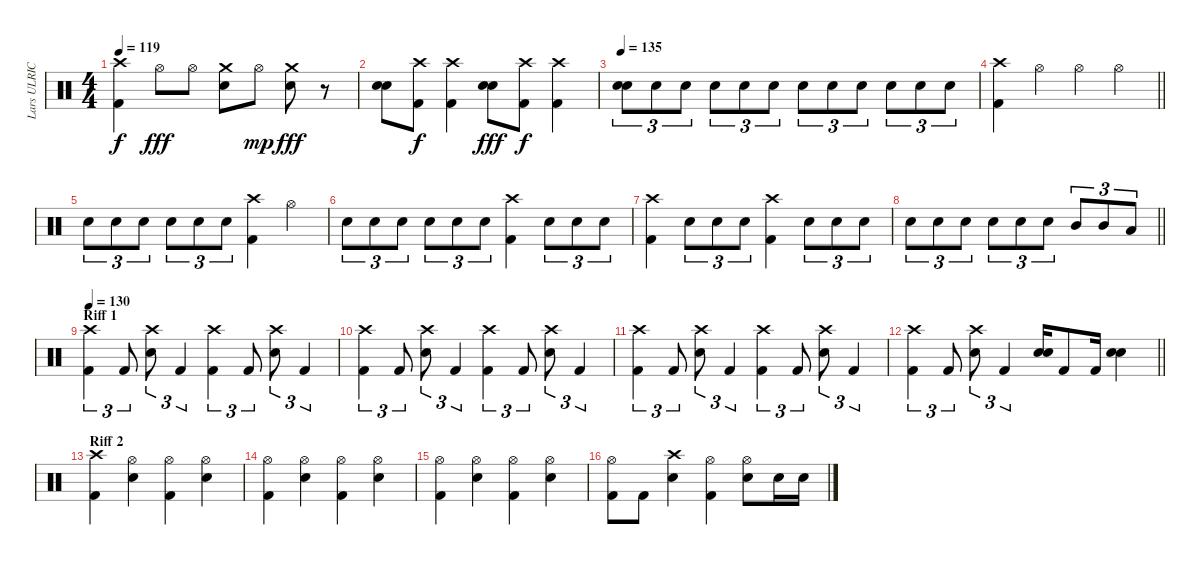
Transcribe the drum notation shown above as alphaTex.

\track ("Lars ULRICH" "Lars ULRIC") {instrument percussion}
\staff {score}
\articulation defaults
\ts (4 4)
\tempo 119
\clef neutral
\ks c
("Crash high (hit)" "Kick (hit) 2").4{dy f} "Hi-Hat (open)".8{dy fff} "Hi-Hat (open)".8 ("Crash medium (hit)" "Snare (hit) 2").8 "Hi-Hat (open)".8{dy mp} ("Crash medium (hit)" "Snare (hit) 2").8{dy fff} r.8 |
("Snare (hit) 2" "Snare (hit) 2").8 ("Crash high (hit)" "Kick (hit) 2").8{dy f} ("Crash high (hit)" "Kick (hit) 2").4 ("Snare (hit) 2" "Snare (hit) 2").8{dy fff} ("Crash high (hit)" "Kick (hit) 2").8{dy f} ("Crash high (hit)" "Kick (hit) 2").4 |
\tempo 135
("Snare (hit) 2" "Snare (hit) 2").8{tu (3 2)} "Snare (hit) 2".8{tu (3 2)} "Snare (hit) 2".8{tu (3 2)} "Snare (hit) 2".8{tu (3 2)} "Snare (hit) 2".8{tu (3 2)} "Snare (hit) 2".8{tu (3 2)} "Snare (hit) 2".8{tu (3 2)} "Snare (hit) 2".8{tu (3 2)} "Snare (hit) 2".8{tu (3 2)} "Snare (hit) 2".8{tu (3 2)} "Snare (hit) 2".8{tu (3 2)} "Snare (hit) 2".8{tu (3 2)} |
\barLineRight lightlight
("Crash high (hit)" "Kick (hit) 2").4 "Hi-Hat (open)".4 "Hi-Hat (open)".4 "Hi-Hat (open)".4 |
\section ("" "")
"Snare (hit) 2".8{tu (3 2)} "Snare (hit) 2".8{tu (3 2)} "Snare (hit) 2".8{tu (3 2)} "Snare (hit) 2".8{tu (3 2)} "Snare (hit) 2".8{tu (3 2)} "Snare (hit) 2".8{tu (3 2)} ("Crash high (hit)" "Kick (hit) 2").4 "Hi-Hat (open)".4 |
"Snare (hit) 2".8{tu (3 2)} "Snare (hit) 2".8{tu (3 2)} "Snare (hit) 2".8{tu (3 2)} "Snare (hit) 2".8{tu (3 2)} "Snare (hit) 2".8{tu (3 2)} "Snare (hit) 2".8{tu (3 2)} ("Crash high (hit)" "Kick (hit) 2").4 "Snare (hit) 2".8{tu (3 2)} "Snare (hit) 2".8{tu (3 2)} "Snare (hit) 2".8{tu (3 2)} |
("Crash high (hit)" "Kick (hit) 2").4 "Snare (hit) 2".8{tu (3 2)} "Snare (hit) 2".8{tu (3 2)} "Snare (hit) 2".8{tu (3 2)} ("Crash high (hit)" "Kick (hit) 2").4 "Snare (hit) 2".8{tu (3 2)} "Snare (hit) 2".8{tu (3 2)} "Snare (hit) 2".8{tu (3 2)} |
\barLineRight lightlight "Snare (hit) 2".8{tu (3 2)} "Snare (hit) 2".8{tu (3 2)} "Snare (hit) 2".8{tu (3 2)} "Snare (hit) 2".8{tu (3 2)} "Snare (hit) 2".8{tu (3 2)} "Snare (hit) 2".8{tu (3 2)} "Mid Tom (hit)".8{tu (3 2)} "Mid Tom (hit)".8{tu (3 2)} "Low Tom (hit)".8{tu (3 2)}
|
\section ("" "Riff 1")
\tempo 130
("Crash high (hit)" "Kick (hit) 2").4{tu (3 2)} "Kick (hit) 2".8{tu (3 2)} ("Crash high (hit)" "Snare (hit) 2").8{tu (3 2)} "Kick (hit) 2".4{tu (3 2)} ("Crash high (hit)" "Kick (hit) 2").4{tu (3 2)} "Kick (hit) 2".8{tu (3 2)} ("Crash high (hit)" "Snare (hit) 2").8{tu (3 2)} "Kick (hit) 2".4{tu (3 2)} |
("Crash high (hit)" "Kick (hit) 2").4{tu (3 2)} "Kick (hit) 2".8{tu (3 2)} ("Crash high (hit)" "Snare (hit) 2").8{tu (3 2)} "Kick (hit) 2".4{tu (3 2)} ("Crash high (hit)" "Kick (hit) 2").4{tu (3 2)} "Kick (hit) 2".8{tu (3 2)} ("Crash high (hit)" "Snare (hit) 2").8{tu (3 2)} "Kick (hit) 2".4{tu (3 2)} |
("Crash high (hit)" "Kick (hit) 2").4{tu (3 2)} "Kick (hit) 2".8{tu (3 2)} ("Crash high (hit)" "Snare (hit) 2").8{tu (3 2)} "Kick (hit) 2".4{tu (3 2)} ("Crash high (hit)" "Kick (hit) 2").4{tu (3 2)} "Kick (hit) 2".8{tu (3 2)} ("Crash high (hit)" "Snare (hit) 2").8{tu (3 2)} "Kick (hit) 2".4{tu (3 2)} |
\barLineRight lightlight
("Crash high (hit)" "Kick (hit) 2").4{tu (3 2)} "Kick (hit) 2".8{tu (3 2)} ("Crash high (hit)" "Snare (hit) 2").8{tu (3 2)} "Kick (hit) 2".4{tu (3 2)} ("Snare (hit) 2" "Snare (hit) 2").16 "Kick (hit) 2".8 "Kick (hit) 2".16 ("Snare (hit) 2" "Snare (hit) 2").4 |
\section ("" "Riff 2")
("Crash high (hit)" "Kick (hit) 2").4 ("Hi-Hat (open)" "Snare (hit) 2").4 ("Hi-Hat (open)" "Kick (hit) 2").4 ("Hi-Hat (open)" "Snare (hit) 2").4 |
("Hi-Hat (open)" "Kick (hit) 2").4 ("Hi-Hat (open)" "Snare (hit) 2").4 ("Hi-Hat (open)" "Kick (hit) 2").4 ("Hi-Hat (open)" "Snare (hit) 2").4 |
("Hi-Hat (open)" "Kick (hit) 2").4 ("Hi-Hat (open)" "Snare (hit) 2").4 ("Hi-Hat (open)" "Kick (hit) 2").4 ("Hi-Hat (open)" "Snare (hit) 2").4 |
("Hi-Hat (open)" "Kick (hit) 2").8 "Kick (hit) 2".8 ("Crash high (hit)" "Snare (hit) 2").4 ("Hi-Hat (open)" "Kick (hit) 2").4 ("Hi-Hat (open)" "Snare (hit) 2").8 "Snare (hit) 2".16 "Snare (hit) 2".16
